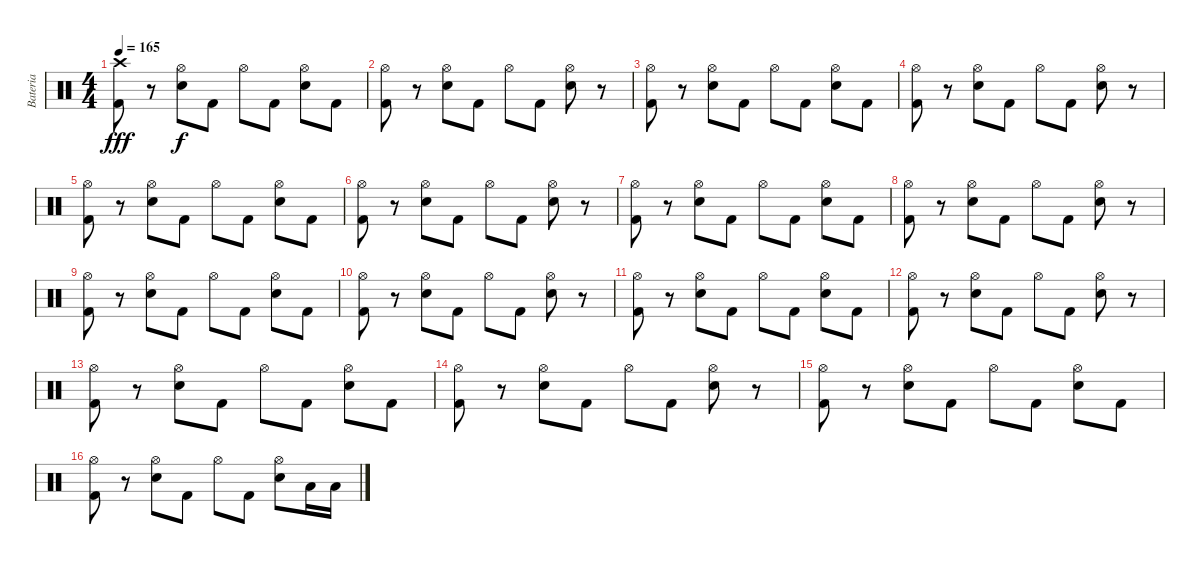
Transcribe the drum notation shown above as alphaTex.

\track ("Bateria" "Bateria") {instrument percussion}
\staff {score}
\articulation defaults
\ts (4 4)
\tempo 165
\clef neutral
\ks c
("Crash high (hit)" "Kick (hit) 2").8{dy fff} r.8 ("Hi-Hat (open)" "Snare (hit) 2").8{dy f} "Kick (hit) 2".8 "Hi-Hat (open)".8 "Kick (hit) 2".8 ("Hi-Hat (open)" "Snare (hit) 2").8 "Kick (hit) 2".8 |
("Hi-Hat (open)" "Kick (hit) 2").8 r.8 ("Hi-Hat (open)" "Snare (hit) 2").8 "Kick (hit) 2".8 "Hi-Hat (open)".8 "Kick (hit) 2".8 ("Hi-Hat (open)" "Snare (hit) 2").8 r.8 |
("Hi-Hat (open)" "Kick (hit) 2").8 r.8 ("Hi-Hat (open)" "Snare (hit) 2").8 "Kick (hit) 2".8 "Hi-Hat (open)".8 "Kick (hit) 2".8 ("Hi-Hat (open)" "Snare (hit) 2").8 "Kick (hit) 2".8 |
("Hi-Hat (open)" "Kick (hit) 2").8 r.8 ("Hi-Hat (open)" "Snare (hit) 2").8 "Kick (hit) 2".8 "Hi-Hat (open)".8 "Kick (hit) 2".8 ("Hi-Hat (open)" "Snare (hit) 2").8 r.8 |
("Hi-Hat (open)" "Kick (hit) 2").8 r.8 ("Hi-Hat (open)" "Snare (hit) 2").8 "Kick (hit) 2".8 "Hi-Hat (open)".8 "Kick (hit) 2".8 ("Hi-Hat (open)" "Snare (hit) 2").8 "Kick (hit) 2".8 |
("Hi-Hat (open)" "Kick (hit) 2").8 r.8 ("Hi-Hat (open)" "Snare (hit) 2").8 "Kick (hit) 2".8 "Hi-Hat (open)".8 "Kick (hit) 2".8 ("Hi-Hat (open)" "Snare (hit) 2").8 r.8 |
("Hi-Hat (open)" "Kick (hit) 2").8 r.8 ("Hi-Hat (open)" "Snare (hit) 2").8 "Kick (hit) 2".8 "Hi-Hat (open)".8 "Kick (hit) 2".8 ("Hi-Hat (open)" "Snare (hit) 2").8 "Kick (hit) 2".8 |
("Hi-Hat (open)" "Kick (hit) 2").8 r.8 ("Hi-Hat (open)" "Snare (hit) 2").8 "Kick (hit) 2".8 "Hi-Hat (open)".8 "Kick (hit) 2".8 ("Hi-Hat (open)" "Snare (hit) 2").8 r.8 |
("Hi-Hat (open)" "Kick (hit) 2").8 r.8 ("Hi-Hat (open)" "Snare (hit) 2").8 "Kick (hit) 2".8 "Hi-Hat (open)".8 "Kick (hit) 2".8 ("Hi-Hat (open)" "Snare (hit) 2").8 "Kick (hit) 2".8 |
("Hi-Hat (open)" "Kick (hit) 2").8 r.8 ("Hi-Hat (open)" "Snare (hit) 2").8 "Kick (hit) 2".8 "Hi-Hat (open)".8 "Kick (hit) 2".8 ("Hi-Hat (open)" "Snare (hit) 2").8 r.8 |
("Hi-Hat (open)" "Kick (hit) 2").8 r.8 ("Hi-Hat (open)" "Snare (hit) 2").8 "Kick (hit) 2".8 "Hi-Hat (open)".8 "Kick (hit) 2".8 ("Hi-Hat (open)" "Snare (hit) 2").8 "Kick (hit) 2".8 |
("Hi-Hat (open)" "Kick (hit) 2").8 r.8 ("Hi-Hat (open)" "Snare (hit) 2").8 "Kick (hit) 2".8 "Hi-Hat (open)".8 "Kick (hit) 2".8 ("Hi-Hat (open)" "Snare (hit) 2").8 r.8 |
("Hi-Hat (open)" "Kick (hit) 2").8 r.8 ("Hi-Hat (open)" "Snare (hit) 2").8 "Kick (hit) 2".8 "Hi-Hat (open)".8 "Kick (hit) 2".8 ("Hi-Hat (open)" "Snare (hit) 2").8 "Kick (hit) 2".8 |
("Hi-Hat (open)" "Kick (hit) 2").8 r.8 ("Hi-Hat (open)" "Snare (hit) 2").8 "Kick (hit) 2".8 "Hi-Hat (open)".8 "Kick (hit) 2".8 ("Hi-Hat (open)" "Snare (hit) 2").8 r.8 |
("Hi-Hat (open)" "Kick (hit) 2").8 r.8 ("Hi-Hat (open)" "Snare (hit) 2").8 "Kick (hit) 2".8 "Hi-Hat (open)".8 "Kick (hit) 2".8 ("Hi-Hat (open)" "Snare (hit) 2").8 "Kick (hit) 2".8 |
("Hi-Hat (open)" "Kick (hit) 2").8 r.8 ("Hi-Hat (open)" "Snare (hit) 2").8 "Kick (hit) 2".8 "Hi-Hat (open)".8 "Kick (hit) 2".8 ("Hi-Hat (open)" "Snare (hit) 2").8 "Low Tom (hit)".16 "Low Tom (hit)".16
